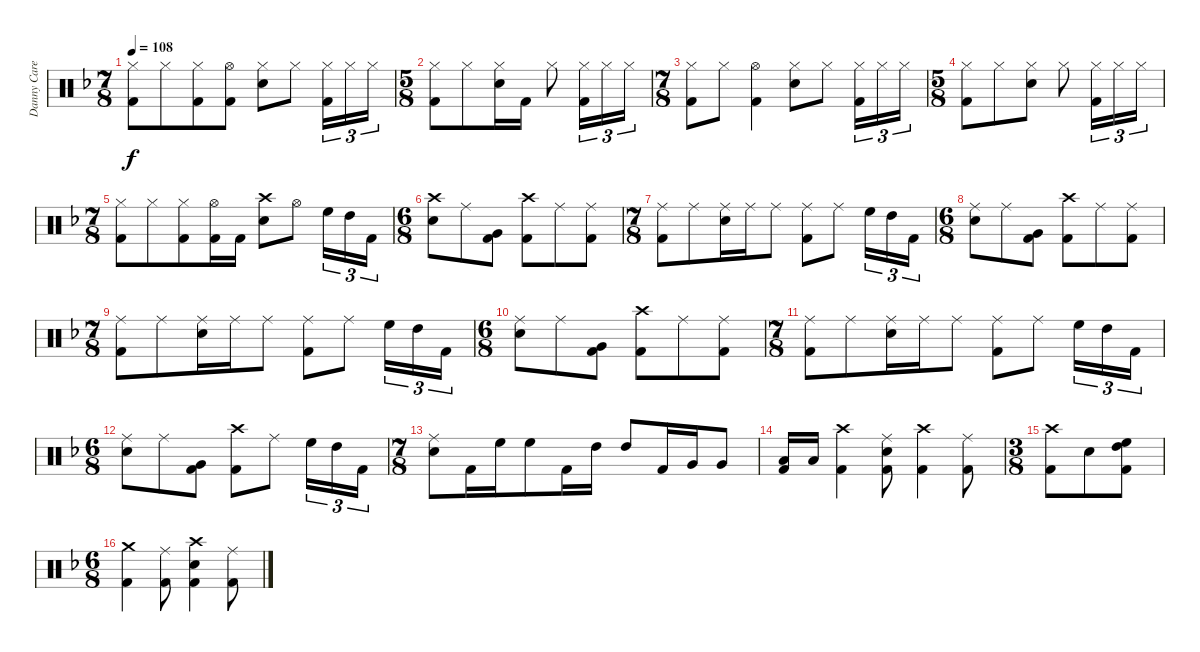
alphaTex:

\track ("Danny Carey" "Danny Care") {instrument percussion}
\staff {score}
\articulation defaults
\ts (7 8)
\tempo 108
\clef neutral
\ks dminor
("Hi-Hat (closed)" "Kick (hit) 2").8{dy f} "Hi-Hat (closed)".8 ("Hi-Hat (closed)" "Kick (hit) 2").8 ("Hi-Hat (open)" "Kick (hit) 2").8 ("Hi-Hat (closed)" "Electric Snare (hit)").8 "Hi-Hat (closed)".8 ("Hi-Hat (closed)" "Kick (hit) 2").16{tu (3 2)} "Hi-Hat (closed)".16{tu (3 2)} "Hi-Hat (closed)".16{tu (3 2)} |
\ts (5 8)
("Hi-Hat (closed)" "Kick (hit) 2").8 "Hi-Hat (closed)".8 ("Hi-Hat (closed)" "Electric Snare (hit)").16 "Kick (hit) 2".16 "Hi-Hat (closed)".8 ("Hi-Hat (closed)" "Kick (hit) 2").16{tu (3 2)} "Hi-Hat (closed)".16{tu (3 2)} "Hi-Hat (closed)".16{tu (3 2)} |
\ts (7 8)
("Hi-Hat (closed)" "Kick (hit) 2").8 "Hi-Hat (closed)".8 ("Hi-Hat (open)" "Kick (hit) 2").4 ("Hi-Hat (closed)" "Electric Snare (hit)").8 "Hi-Hat (closed)".8 ("Hi-Hat (closed)" "Kick (hit) 2").16{tu (3 2)} "Hi-Hat (closed)".16{tu (3 2)} "Hi-Hat (closed)".16{tu (3 2)} |
\ts (5 8)
("Hi-Hat (closed)" "Kick (hit) 2").8 "Hi-Hat (closed)".8 ("Hi-Hat (closed)" "Electric Snare (hit)").8 "Hi-Hat (closed)".8 ("Hi-Hat (closed)" "Kick (hit) 2").16{tu (3 2)} "Hi-Hat (closed)".16{tu (3 2)} "Hi-Hat (closed)".16{tu (3 2)} |
\ts (7 8)
("Hi-Hat (closed)" "Kick (hit) 2").8 "Hi-Hat (closed)".8 ("Hi-Hat (closed)" "Kick (hit) 2").8 ("Hi-Hat (open)" "Kick (hit) 2").16 "Kick (hit) 2".16 ("Crash high (hit)" "Electric Snare (hit)").8 "Hi-Hat (open)".8 "High Floor Tom (hit)".16{tu (3 2)} "High Tom (hit)".16{tu (3 2)} "Kick (hit) 2".16{tu (3 2)} |
\ts (6 8)
("Crash high (hit)" "Electric Snare (hit)").8 "Ride (middle)".8 ("Very Low Tom (hit)" "Kick (hit) 2").8 ("Crash high (hit)" "Kick (hit) 2").8 "Ride (middle)".8 ("Ride (middle)" "Kick (hit) 2").8 |
\ts (7 8)
("Ride (middle)" "Kick (hit) 2").8 "Ride (middle)".8 ("Ride (middle)" "Electric Snare (hit)").16 "Ride (middle)".16 "Ride (middle)".8 ("Ride (middle)" "Kick (hit) 2").8 "Ride (middle)".8 "High Floor Tom (hit)".16{tu (3 2)} "High Tom (hit)".16{tu (3 2)} "Kick (hit) 2".16{tu (3 2)} |
\ts (6 8)
("Ride (middle)" "Electric Snare (hit)").8 "Ride (middle)".8 ("Very Low Tom (hit)" "Kick (hit) 2").8 ("Crash high (hit)" "Kick (hit) 2").8 "Ride (middle)".8 ("Ride (middle)" "Kick (hit) 2").8 |
\ts (7 8)
("Ride (middle)" "Kick (hit) 2").8 "Ride (middle)".8 ("Ride (middle)" "Electric Snare (hit)").16 "Ride (middle)".16 "Ride (middle)".8 ("Ride (middle)" "Kick (hit) 2").8 "Ride (middle)".8 "High Floor Tom (hit)".16{tu (3 2)} "High Tom (hit)".16{tu (3 2)} "Kick (hit) 2".16{tu (3 2)} |
\ts (6 8)
("Ride (middle)" "Electric Snare (hit)").8 "Ride (middle)".8 ("Very Low Tom (hit)" "Kick (hit) 2").8 ("Crash high (hit)" "Kick (hit) 2").8 "Ride (middle)".8 ("Ride (middle)" "Kick (hit) 2").8 |
\ts (7 8)
("Ride (middle)" "Kick (hit) 2").8 "Ride (middle)".8 ("Ride (middle)" "Electric Snare (hit)").16 "Ride (middle)".16 "Ride (middle)".8 ("Ride (middle)" "Kick (hit) 2").8 "Ride (middle)".8 "High Floor Tom (hit)".16{tu (3 2)} "High Tom (hit)".16{tu (3 2)} "Kick (hit) 2".16{tu (3 2)} |
\ts (6 8)
("Ride (middle)" "Electric Snare (hit)").8 "Ride (middle)".8 ("Very Low Tom (hit)" "Kick (hit) 2").8 ("Crash high (hit)" "Kick (hit) 2").8 "Ride (middle)".8 "High Floor Tom (hit)".16{tu (3 2)} "High Tom (hit)".16{tu (3 2)} "Kick (hit) 2".16{tu (3 2)} |
\ts (7 8)
("Ride (middle)" "Electric Snare (hit)").8 "Kick (hit) 2".16 "High Floor Tom (hit)".16 "High Floor Tom (hit)".8 "Kick (hit) 2".16 "High Tom (hit)".16 "High Tom (hit)".8 "Kick (hit) 2".16 "Very Low Tom (hit)".16 "Very Low Tom (hit)".8 |
("Low Floor Tom (hit)" "Kick (hit) 2").16 "Low Floor Tom (hit)".16 ("Crash high (hit)" "Kick (hit) 2").4 ("Ride (middle)" "Electric Snare (hit)" "Kick (hit) 2").8 ("Crash high (hit)" "Kick (hit) 2").4 ("Ride (middle)" "Kick (hit) 2").8 |
\ts (3 8)
("Crash high (hit)" "Kick (hit) 2").8 "Electric Snare (hit)".8 ("High Tom (hit)" "High Floor Tom (hit)" "Kick (hit) 2").8 |
\ts (6 8)
("Crash medium (hit)" "Kick (hit) 2").4 ("Ride (middle)" "Kick (hit) 2").8 ("Crash high (hit)" "Electric Snare (hit)" "Kick (hit) 2").4 ("Ride (middle)" "Kick (hit) 2").8
